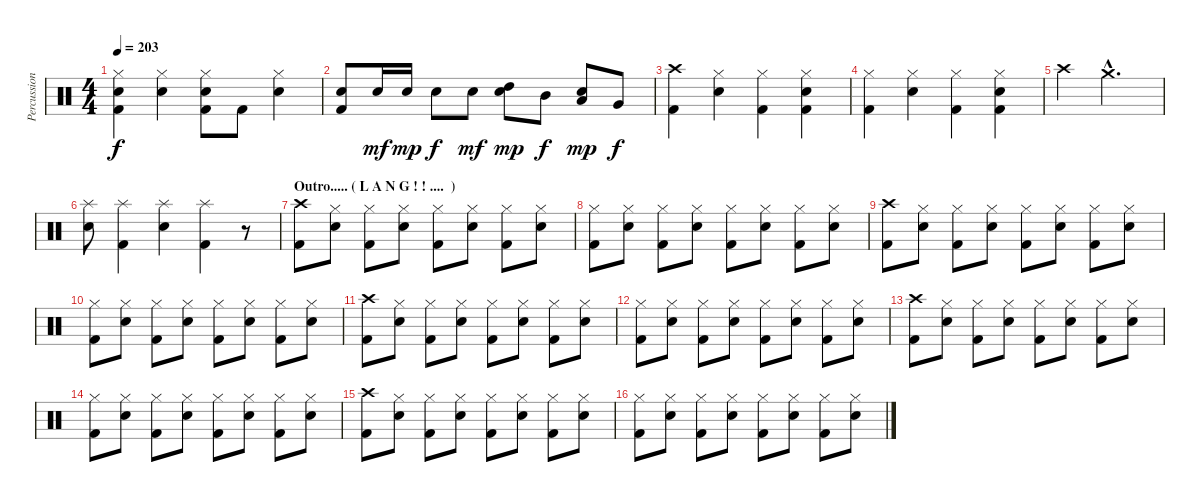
\track ("Percussion" "Percussion") {instrument percussion}
\staff {score}
\articulation defaults
\ts (4 4)
\tempo 203
\clef neutral
\ks c
("Hi-Hat (closed)" "Electric Snare (hit)" "Kick (hit) 2").4{dy f} ("Hi-Hat (closed)" "Electric Snare (hit)").4 ("Hi-Hat (closed)" "Electric Snare (hit)" "Kick (hit) 2").8 "Kick (hit) 2".8 ("Hi-Hat (closed)" "Electric Snare (hit)").4 |
("Electric Snare (hit)" "Kick (hit) 2").8 "Electric Snare (hit)".16{dy mf} "Electric Snare (hit)".16{dy mp} "Electric Snare (hit)".8{dy f} "Electric Snare (hit)".8{dy mf} ("High Tom (hit)" "Electric Snare (hit)").8{dy mp} "Mid Tom (hit)".8{dy f} ("Low Tom (hit)" "Electric Snare (hit)").8{dy mp} "Very Low Tom (hit)".8{dy f} |
("Crash high (hit)" "Kick (hit) 2").4 ("Hi-Hat (closed)" "Electric Snare (hit)").4 ("Hi-Hat (closed)" "Kick (hit) 2").4 ("Hi-Hat (closed)" "Electric Snare (hit)" "Kick (hit) 2").4 |
("Hi-Hat (closed)" "Kick (hit) 2").4 ("Hi-Hat (closed)" "Electric Snare (hit)").4 ("Hi-Hat (closed)" "Kick (hit) 2").4 ("Hi-Hat (closed)" "Electric Snare (hit)" "Kick (hit) 2").4 |
"Crash high (hit)".4 "Crash medium (hit)"{hac}.2{d} |
("Splash (hit)" "Electric Snare (hit)").8 ("Splash (hit)" "Kick (hit) 2").4 ("Splash (hit)" "Electric Snare (hit)").4 ("Splash (hit)" "Kick (hit) 2").4 r.8 |
\section ("" "Outro..... ( L A N G ! ! ....  )")
("Crash high (hit)" "Kick (hit) 2").8 ("Hi-Hat (closed)" "Electric Snare (hit)").8 ("Hi-Hat (closed)" "Kick (hit) 2").8 ("Hi-Hat (closed)" "Electric Snare (hit)").8 ("Hi-Hat (closed)" "Kick (hit) 2").8 ("Hi-Hat (closed)" "Electric Snare (hit)").8 ("Hi-Hat (closed)" "Kick (hit) 2").8 ("Hi-Hat (closed)" "Electric Snare (hit)").8 |
("Hi-Hat (closed)" "Kick (hit) 2").8 ("Hi-Hat (closed)" "Electric Snare (hit)").8 ("Hi-Hat (closed)" "Kick (hit) 2").8 ("Hi-Hat (closed)" "Electric Snare (hit)").8 ("Hi-Hat (closed)" "Kick (hit) 2").8 ("Hi-Hat (closed)" "Electric Snare (hit)").8 ("Hi-Hat (closed)" "Kick (hit) 2").8 ("Hi-Hat (closed)" "Electric Snare (hit)").8 |
("Crash high (hit)" "Kick (hit) 2").8 ("Hi-Hat (closed)" "Electric Snare (hit)").8 ("Hi-Hat (closed)" "Kick (hit) 2").8 ("Hi-Hat (closed)" "Electric Snare (hit)").8 ("Hi-Hat (closed)" "Kick (hit) 2").8 ("Hi-Hat (closed)" "Electric Snare (hit)").8 ("Hi-Hat (closed)" "Kick (hit) 2").8 ("Hi-Hat (closed)" "Electric Snare (hit)").8 |
("Hi-Hat (closed)" "Kick (hit) 2").8 ("Hi-Hat (closed)" "Electric Snare (hit)").8 ("Hi-Hat (closed)" "Kick (hit) 2").8 ("Hi-Hat (closed)" "Electric Snare (hit)").8 ("Hi-Hat (closed)" "Kick (hit) 2").8 ("Hi-Hat (closed)" "Electric Snare (hit)").8 ("Hi-Hat (closed)" "Kick (hit) 2").8 ("Hi-Hat (closed)" "Electric Snare (hit)").8 |
("Crash high (hit)" "Kick (hit) 2").8 ("Hi-Hat (closed)" "Electric Snare (hit)").8 ("Hi-Hat (closed)" "Kick (hit) 2").8 ("Hi-Hat (closed)" "Electric Snare (hit)").8 ("Hi-Hat (closed)" "Kick (hit) 2").8 ("Hi-Hat (closed)" "Electric Snare (hit)").8 ("Hi-Hat (closed)" "Kick (hit) 2").8 ("Hi-Hat (closed)" "Electric Snare (hit)").8 |
("Hi-Hat (closed)" "Kick (hit) 2").8 ("Hi-Hat (closed)" "Electric Snare (hit)").8 ("Hi-Hat (closed)" "Kick (hit) 2").8 ("Hi-Hat (closed)" "Electric Snare (hit)").8 ("Hi-Hat (closed)" "Kick (hit) 2").8 ("Hi-Hat (closed)" "Electric Snare (hit)").8 ("Hi-Hat (closed)" "Kick (hit) 2").8 ("Hi-Hat (closed)" "Electric Snare (hit)").8 |
("Crash high (hit)" "Kick (hit) 2").8 ("Hi-Hat (closed)" "Electric Snare (hit)").8 ("Hi-Hat (closed)" "Kick (hit) 2").8 ("Hi-Hat (closed)" "Electric Snare (hit)").8 ("Hi-Hat (closed)" "Kick (hit) 2").8 ("Hi-Hat (closed)" "Electric Snare (hit)").8 ("Hi-Hat (closed)" "Kick (hit) 2").8 ("Hi-Hat (closed)" "Electric Snare (hit)").8 |
("Hi-Hat (closed)" "Kick (hit) 2").8 ("Hi-Hat (closed)" "Electric Snare (hit)").8 ("Hi-Hat (closed)" "Kick (hit) 2").8 ("Hi-Hat (closed)" "Electric Snare (hit)").8 ("Hi-Hat (closed)" "Kick (hit) 2").8 ("Hi-Hat (closed)" "Electric Snare (hit)").8 ("Hi-Hat (closed)" "Kick (hit) 2").8 ("Hi-Hat (closed)" "Electric Snare (hit)").8 |
("Crash high (hit)" "Kick (hit) 2").8 ("Hi-Hat (closed)" "Electric Snare (hit)").8 ("Hi-Hat (closed)" "Kick (hit) 2").8 ("Hi-Hat (closed)" "Electric Snare (hit)").8 ("Hi-Hat (closed)" "Kick (hit) 2").8 ("Hi-Hat (closed)" "Electric Snare (hit)").8 ("Hi-Hat (closed)" "Kick (hit) 2").8 ("Hi-Hat (closed)" "Electric Snare (hit)").8 |
("Hi-Hat (closed)" "Kick (hit) 2").8 ("Hi-Hat (closed)" "Electric Snare (hit)").8 ("Hi-Hat (closed)" "Kick (hit) 2").8 ("Hi-Hat (closed)" "Electric Snare (hit)").8 ("Hi-Hat (closed)" "Kick (hit) 2").8 ("Hi-Hat (closed)" "Electric Snare (hit)").8 ("Hi-Hat (closed)" "Kick (hit) 2").8 ("Hi-Hat (closed)" "Electric Snare (hit)").8
